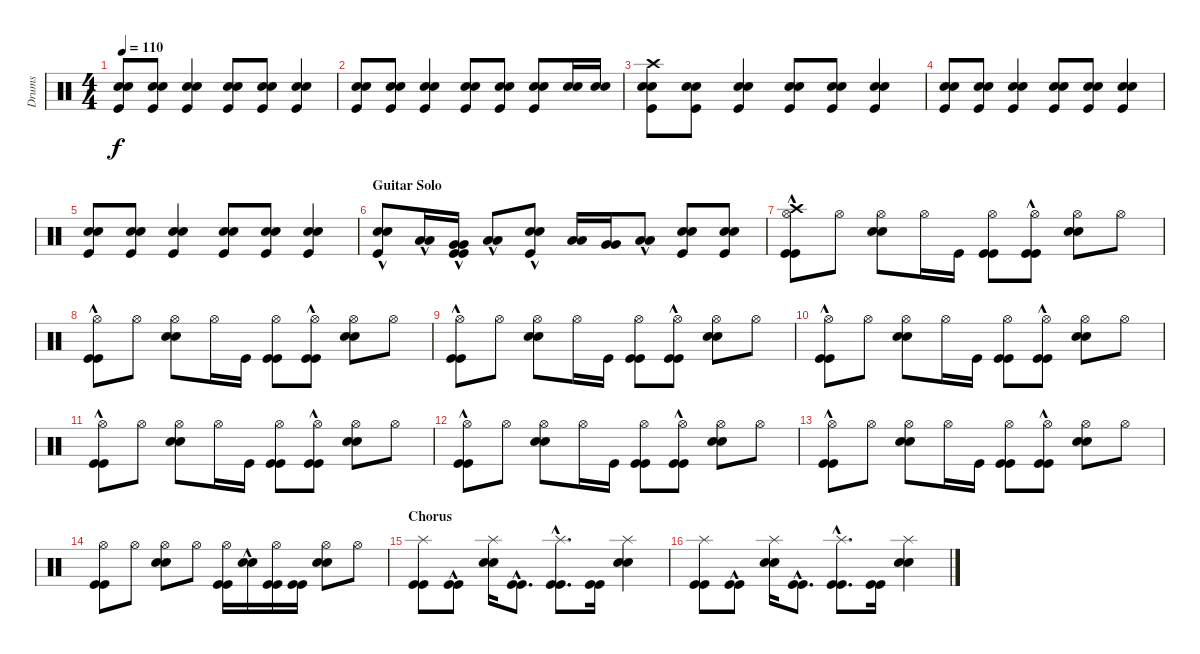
\track ("Drums" "Drums") {instrument percussion}
\staff {score}
\articulation defaults
\ts (4 4)
\tempo 110
\clef neutral
\ks c
("Kick (hit)" "Snare (hit) 2" "Snare (hit) 2").8{dy f} ("Kick (hit)" "Snare (hit) 2" "Snare (hit) 2").8 ("Kick (hit)" "Snare (hit) 2" "Snare (hit) 2").4 ("Kick (hit)" "Snare (hit) 2" "Snare (hit) 2").8 ("Kick (hit)" "Snare (hit) 2" "Snare (hit) 2").8 ("Kick (hit)" "Snare (hit) 2" "Snare (hit) 2").4 |
("Kick (hit)" "Snare (hit) 2" "Snare (hit) 2").8 ("Kick (hit)" "Snare (hit) 2" "Snare (hit) 2").8 ("Kick (hit)" "Snare (hit) 2" "Snare (hit) 2").4 ("Kick (hit)" "Snare (hit) 2" "Snare (hit) 2").8 ("Kick (hit)" "Snare (hit) 2" "Snare (hit) 2").8 ("Kick (hit)" "Snare (hit) 2" "Snare (hit) 2").8 ("Snare (hit) 2" "Snare (hit) 2").16 ("Snare (hit) 2" "Snare (hit) 2").16 |
("Kick (hit)" "Snare (hit) 2" "Snare (hit) 2" "Crash high (hit)").8 ("Kick (hit)" "Snare (hit) 2" "Snare (hit) 2").8 ("Kick (hit)" "Snare (hit) 2" "Snare (hit) 2").4 ("Kick (hit)" "Snare (hit) 2" "Snare (hit) 2").8 ("Kick (hit)" "Snare (hit) 2" "Snare (hit) 2").8 ("Kick (hit)" "Snare (hit) 2" "Snare (hit) 2").4 |
("Kick (hit)" "Snare (hit) 2" "Snare (hit) 2").8 ("Kick (hit)" "Snare (hit) 2" "Snare (hit) 2").8 ("Kick (hit)" "Snare (hit) 2" "Snare (hit) 2").4 ("Kick (hit)" "Snare (hit) 2" "Snare (hit) 2").8 ("Kick (hit)" "Snare (hit) 2" "Snare (hit) 2").8 ("Kick (hit)" "Snare (hit) 2" "Snare (hit) 2").4 |
("Kick (hit)" "Snare (hit) 2" "Snare (hit) 2").8 ("Kick (hit)" "Snare (hit) 2" "Snare (hit) 2").8 ("Kick (hit)" "Snare (hit) 2" "Snare (hit) 2").4 ("Kick (hit)" "Snare (hit) 2" "Snare (hit) 2").8 ("Kick (hit)" "Snare (hit) 2" "Snare (hit) 2").8 ("Kick (hit)" "Snare (hit) 2" "Snare (hit) 2").4 |
\section ("" "Guitar Solo")
("Kick (hit)"{hac} "Snare (hit) 2"{hac} "Snare (hit) 2"{hac}).8 ("Low Tom (hit)"{hac} "Low Tom (hit)"{hac}).16 ("Kick (hit)"{hac} "Kick (hit)"{hac} "Very Low Tom (hit)"{hac} "Very Low Tom (hit)"{hac}).16 ("Low Floor Tom (hit)"{hac} "Low Floor Tom (hit)"{hac}).8 ("Kick (hit)"{hac} "Snare (hit) 2" "Snare (hit) 2").8 ("Low Tom (hit)" "Low Tom (hit)").16 ("Very Low Tom (hit)" "Very Low Tom (hit)").16 ("Low Floor Tom (hit)"{hac} "Low Floor Tom (hit)"{hac}).8 ("Kick (hit)" "Snare (hit) 2" "Snare (hit) 2").8 ("Kick (hit)" "Snare (hit) 2" "Snare (hit) 2").8 |
("Kick (hit)"{hac} "Kick (hit)"{hac} "Hi-Hat (open)" "Crash high (hit)").8 "Hi-Hat (open)".8 ("Snare (hit) 2" "Snare (hit) 2" "Hi-Hat (open)").8 "Hi-Hat (open)".16 "Kick (hit)".16 ("Kick (hit)" "Kick (hit)" "Hi-Hat (open)").8 ("Kick (hit)"{hac} "Kick (hit)"{hac} "Hi-Hat (open)").8 ("Snare (hit) 2" "Snare (hit) 2" "Hi-Hat (open)").8 "Hi-Hat (open)".8 |
("Kick (hit)"{hac} "Kick (hit)"{hac} "Hi-Hat (open)").8 "Hi-Hat (open)".8 ("Snare (hit) 2" "Snare (hit) 2" "Hi-Hat (open)").8 "Hi-Hat (open)".16 "Kick (hit)".16 ("Kick (hit)" "Kick (hit)" "Hi-Hat (open)").8 ("Kick (hit)"{hac} "Kick (hit)"{hac} "Hi-Hat (open)").8 ("Snare (hit) 2" "Snare (hit) 2" "Hi-Hat (open)").8 "Hi-Hat (open)".8 |
("Kick (hit)"{hac} "Kick (hit)"{hac} "Hi-Hat (open)").8 "Hi-Hat (open)".8 ("Snare (hit) 2" "Snare (hit) 2" "Hi-Hat (open)").8 "Hi-Hat (open)".16 "Kick (hit)".16 ("Kick (hit)" "Kick (hit)" "Hi-Hat (open)").8 ("Kick (hit)"{hac} "Kick (hit)"{hac} "Hi-Hat (open)").8 ("Snare (hit) 2" "Snare (hit) 2" "Hi-Hat (open)").8 "Hi-Hat (open)".8 |
("Kick (hit)"{hac} "Kick (hit)"{hac} "Hi-Hat (open)").8 "Hi-Hat (open)".8 ("Snare (hit) 2" "Snare (hit) 2" "Hi-Hat (open)").8 "Hi-Hat (open)".16 "Kick (hit)".16 ("Kick (hit)" "Kick (hit)" "Hi-Hat (open)").8 ("Kick (hit)"{hac} "Kick (hit)"{hac} "Hi-Hat (open)").8 ("Snare (hit) 2" "Snare (hit) 2" "Hi-Hat (open)").8 "Hi-Hat (open)".8 |
("Kick (hit)"{hac} "Kick (hit)"{hac} "Hi-Hat (open)").8 "Hi-Hat (open)".8 ("Snare (hit) 2" "Snare (hit) 2" "Hi-Hat (open)").8 "Hi-Hat (open)".16 "Kick (hit)".16 ("Kick (hit)" "Kick (hit)" "Hi-Hat (open)").8 ("Kick (hit)"{hac} "Kick (hit)"{hac} "Hi-Hat (open)").8 ("Snare (hit) 2" "Snare (hit) 2" "Hi-Hat (open)").8 "Hi-Hat (open)".8 |
("Kick (hit)"{hac} "Kick (hit)"{hac} "Hi-Hat (open)").8 "Hi-Hat (open)".8 ("Snare (hit) 2" "Snare (hit) 2" "Hi-Hat (open)").8 "Hi-Hat (open)".16 "Kick (hit)".16 ("Kick (hit)" "Kick (hit)" "Hi-Hat (open)").8 ("Kick (hit)"{hac} "Kick (hit)"{hac} "Hi-Hat (open)").8 ("Snare (hit) 2" "Snare (hit) 2" "Hi-Hat (open)").8 "Hi-Hat (open)".8 |
("Kick (hit)"{hac} "Kick (hit)"{hac} "Hi-Hat (open)").8 "Hi-Hat (open)".8 ("Snare (hit) 2" "Snare (hit) 2" "Hi-Hat (open)").8 "Hi-Hat (open)".16 "Kick (hit)".16 ("Kick (hit)" "Kick (hit)" "Hi-Hat (open)").8 ("Kick (hit)"{hac} "Kick (hit)"{hac} "Hi-Hat (open)").8 ("Snare (hit) 2" "Snare (hit) 2" "Hi-Hat (open)").8 "Hi-Hat (open)".8 |
("Kick (hit)" "Kick (hit)" "Hi-Hat (open)").8 "Hi-Hat (open)".8 ("Snare (hit) 2" "Snare (hit) 2" "Hi-Hat (open)").8 "Hi-Hat (open)".8 ("Kick (hit)" "Kick (hit)" "Hi-Hat (open)").16 ("Snare (hit) 2"{hac} "Snare (hit) 2"{hac}).16 ("Kick (hit)" "Kick (hit)" "Hi-Hat (open)").16 ("Kick (hit)" "Kick (hit)").16 ("Snare (hit) 2" "Snare (hit) 2" "Hi-Hat (open)").8 "Hi-Hat (open)".8 |
\section ("" "Chorus")
("Kick (hit)" "Kick (hit)" "Splash (hit)").8 ("Kick (hit)"{hac} "Kick (hit)"{hac}).8 ("Snare (hit) 2" "Snare (hit) 2" "Splash (hit)").16 ("Kick (hit)"{hac} "Kick (hit)"{hac}).8{d} ("Kick (hit)"{hac} "Kick (hit)"{hac} "Splash (hit)").8{d} ("Kick (hit)" "Kick (hit)").16 ("Snare (hit) 2" "Snare (hit) 2" "Splash (hit)").4 |
("Kick (hit)" "Kick (hit)" "Splash (hit)").8 ("Kick (hit)"{hac} "Kick (hit)"{hac}).8 ("Snare (hit) 2" "Snare (hit) 2" "Splash (hit)").16 ("Kick (hit)"{hac} "Kick (hit)"{hac}).8{d} ("Kick (hit)"{hac} "Kick (hit)"{hac} "Splash (hit)").8{d} ("Kick (hit)" "Kick (hit)").16 ("Snare (hit) 2" "Snare (hit) 2" "Splash (hit)").4
